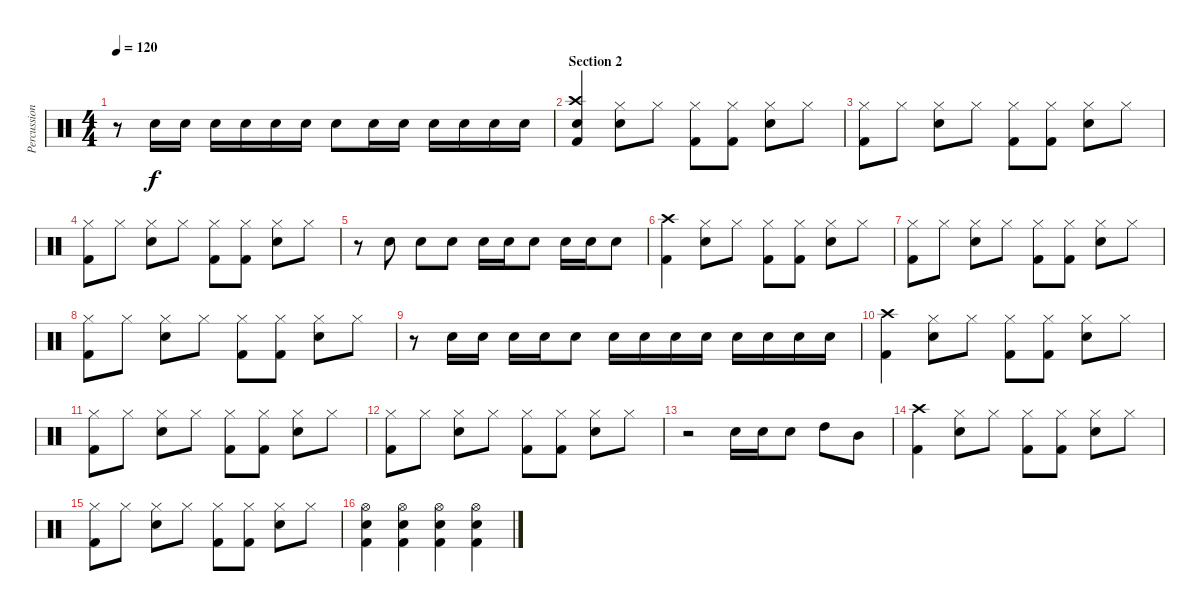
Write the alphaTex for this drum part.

\track ("Percussions" "Percussion") {instrument percussion}
\staff {score}
\articulation defaults
\ts (4 4)
\tempo 120
\clef neutral
\ks c
r.8{dy f} "Snare (hit) 2".16 "Snare (hit) 2".16 "Snare (hit) 2".16 "Snare (hit) 2".16 "Snare (hit) 2".16 "Snare (hit) 2".16 "Snare (hit) 2".8 "Snare (hit) 2".16 "Snare (hit) 2".16 "Snare (hit) 2".16 "Snare (hit) 2".16 "Snare (hit) 2".16 "Snare (hit) 2".16 |
\section ("" "Section 2")
("Crash high (hit)" "Snare (hit) 2" "Kick (hit) 2").4 ("Hi-Hat (closed)" "Snare (hit) 2").8 "Hi-Hat (closed)".8 ("Hi-Hat (closed)" "Kick (hit) 2").8 ("Hi-Hat (closed)" "Kick (hit) 2").8 ("Hi-Hat (closed)" "Snare (hit) 2").8 "Hi-Hat (closed)".8 |
("Hi-Hat (closed)" "Kick (hit) 2").8 "Hi-Hat (closed)".8 ("Hi-Hat (closed)" "Snare (hit) 2").8 "Hi-Hat (closed)".8 ("Hi-Hat (closed)" "Kick (hit) 2").8 ("Hi-Hat (closed)" "Kick (hit) 2").8 ("Hi-Hat (closed)" "Snare (hit) 2").8 "Hi-Hat (closed)".8 |
("Hi-Hat (closed)" "Kick (hit) 2").8 "Hi-Hat (closed)".8 ("Hi-Hat (closed)" "Snare (hit) 2").8 "Hi-Hat (closed)".8 ("Hi-Hat (closed)" "Kick (hit) 2").8 ("Hi-Hat (closed)" "Kick (hit) 2").8 ("Hi-Hat (closed)" "Snare (hit) 2").8 "Hi-Hat (closed)".8 |
r.8 "Snare (hit) 2".8 "Snare (hit) 2".8 "Snare (hit) 2".8 "Snare (hit) 2".16 "Snare (hit) 2".16 "Snare (hit) 2".8 "Snare (hit) 2".16 "Snare (hit) 2".16 "Snare (hit) 2".8 |
("Crash high (hit)" "Kick (hit) 2").4 ("Hi-Hat (closed)" "Snare (hit) 2").8 "Hi-Hat (closed)".8 ("Hi-Hat (closed)" "Kick (hit) 2").8 ("Hi-Hat (closed)" "Kick (hit) 2").8 ("Hi-Hat (closed)" "Snare (hit) 2").8 "Hi-Hat (closed)".8 |
("Hi-Hat (closed)" "Kick (hit) 2").8 "Hi-Hat (closed)".8 ("Hi-Hat (closed)" "Snare (hit) 2").8 "Hi-Hat (closed)".8 ("Hi-Hat (closed)" "Kick (hit) 2").8 ("Hi-Hat (closed)" "Kick (hit) 2").8 ("Hi-Hat (closed)" "Snare (hit) 2").8 "Hi-Hat (closed)".8 |
("Hi-Hat (closed)" "Kick (hit) 2").8 "Hi-Hat (closed)".8 ("Hi-Hat (closed)" "Snare (hit) 2").8 "Hi-Hat (closed)".8 ("Hi-Hat (closed)" "Kick (hit) 2").8 ("Hi-Hat (closed)" "Kick (hit) 2").8 ("Hi-Hat (closed)" "Snare (hit) 2").8 "Hi-Hat (closed)".8 |
r.8 "Snare (hit) 2".16 "Snare (hit) 2".16 "Snare (hit) 2".16 "Snare (hit) 2".16 "Snare (hit) 2".8 "Snare (hit) 2".16 "Snare (hit) 2".16 "Snare (hit) 2".16 "Snare (hit) 2".16 "Snare (hit) 2".16 "Snare (hit) 2".16 "Snare (hit) 2".16 "Snare (hit) 2".16 |
("Crash high (hit)" "Kick (hit) 2").4 ("Hi-Hat (closed)" "Snare (hit) 2").8 "Hi-Hat (closed)".8 ("Hi-Hat (closed)" "Kick (hit) 2").8 ("Hi-Hat (closed)" "Kick (hit) 2").8 ("Hi-Hat (closed)" "Snare (hit) 2").8 "Hi-Hat (closed)".8 |
("Hi-Hat (closed)" "Kick (hit) 2").8 "Hi-Hat (closed)".8 ("Hi-Hat (closed)" "Snare (hit) 2").8 "Hi-Hat (closed)".8 ("Hi-Hat (closed)" "Kick (hit) 2").8 ("Hi-Hat (closed)" "Kick (hit) 2").8 ("Hi-Hat (closed)" "Snare (hit) 2").8 "Hi-Hat (closed)".8 |
("Hi-Hat (closed)" "Kick (hit) 2").8 "Hi-Hat (closed)".8 ("Hi-Hat (closed)" "Snare (hit) 2").8 "Hi-Hat (closed)".8 ("Hi-Hat (closed)" "Kick (hit) 2").8 ("Hi-Hat (closed)" "Kick (hit) 2").8 ("Hi-Hat (closed)" "Snare (hit) 2").8 "Hi-Hat (closed)".8 |
r.2 "Snare (hit) 2".16 "Snare (hit) 2".16 "Snare (hit) 2".8 "High Tom (hit)".8 "Mid Tom (hit)".8 |
("Crash high (hit)" "Kick (hit) 2").4 ("Hi-Hat (closed)" "Snare (hit) 2").8 "Hi-Hat (closed)".8 ("Hi-Hat (closed)" "Kick (hit) 2").8 ("Hi-Hat (closed)" "Kick (hit) 2").8 ("Hi-Hat (closed)" "Snare (hit) 2").8 "Hi-Hat (closed)".8 |
("Hi-Hat (closed)" "Kick (hit) 2").8 "Hi-Hat (closed)".8 ("Hi-Hat (closed)" "Snare (hit) 2").8 "Hi-Hat (closed)".8 ("Hi-Hat (closed)" "Kick (hit) 2").8 ("Hi-Hat (closed)" "Kick (hit) 2").8 ("Hi-Hat (closed)" "Snare (hit) 2").8 "Hi-Hat (closed)".8 |
("Hi-Hat (open)" "Snare (hit) 2" "Kick (hit) 2").4 ("Hi-Hat (open)" "Snare (hit) 2" "Kick (hit) 2").4 ("Hi-Hat (open)" "Snare (hit) 2" "Kick (hit) 2").4 ("Hi-Hat (open)" "Snare (hit) 2" "Kick (hit) 2").4
